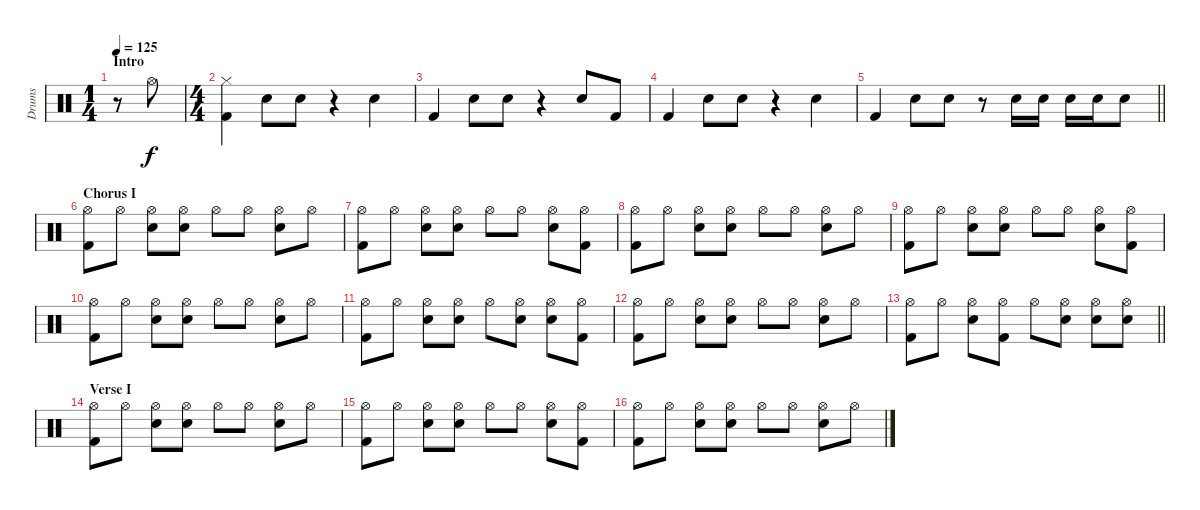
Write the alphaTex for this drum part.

\track ("Drums" "Drums") {instrument percussion}
\staff {score}
\articulation defaults
\ts (1 4)
\section ("" "Intro")
\tempo 125
\clef neutral
\ks c
r.8{dy f} "Hi-Hat (open)".8 |
\ts (4 4)
("Hi-Hat (closed)" "Kick (hit) 2").4 "Snare (hit) 2".8 "Snare (hit) 2".8 r.4 "Snare (hit) 2".4 |
"Kick (hit) 2".4 "Snare (hit) 2".8 "Snare (hit) 2".8 r.4 "Snare (hit) 2".8 "Kick (hit) 2".8 |
"Kick (hit) 2".4 "Snare (hit) 2".8 "Snare (hit) 2".8 r.4 "Snare (hit) 2".4 |
\barLineRight lightlight "Kick (hit) 2".4 "Snare (hit) 2".8 "Snare (hit) 2".8
r.8 "Snare (hit) 2".16 "Snare (hit) 2".16 "Snare (hit) 2".16 "Snare (hit) 2".16 "Snare (hit) 2".8 |
\section ("" "Chorus I")
("Hi-Hat (open)" "Kick (hit) 2").8 "Hi-Hat (open)".8 ("Hi-Hat (open)" "Snare (hit) 2").8 ("Hi-Hat (open)" "Snare (hit) 2").8 "Hi-Hat (open)".8 "Hi-Hat (open)".8 ("Hi-Hat (open)" "Snare (hit) 2").8 "Hi-Hat (open)".8 |
("Hi-Hat (open)" "Kick (hit) 2").8 "Hi-Hat (open)".8 ("Hi-Hat (open)" "Snare (hit) 2").8 ("Hi-Hat (open)" "Snare (hit) 2").8 "Hi-Hat (open)".8 "Hi-Hat (open)".8 ("Hi-Hat (open)" "Snare (hit) 2").8 ("Hi-Hat (open)" "Kick (hit) 2").8 |
("Hi-Hat (open)" "Kick (hit) 2").8 "Hi-Hat (open)".8 ("Hi-Hat (open)" "Snare (hit) 2").8 ("Hi-Hat (open)" "Snare (hit) 2").8 "Hi-Hat (open)".8 "Hi-Hat (open)".8 ("Hi-Hat (open)" "Snare (hit) 2").8 "Hi-Hat (open)".8 |
("Hi-Hat (open)" "Kick (hit) 2").8 "Hi-Hat (open)".8 ("Hi-Hat (open)" "Snare (hit) 2").8 ("Hi-Hat (open)" "Snare (hit) 2").8 "Hi-Hat (open)".8 "Hi-Hat (open)".8 ("Hi-Hat (open)" "Snare (hit) 2").8 ("Hi-Hat (open)" "Kick (hit) 2").8 |
("Hi-Hat (open)" "Kick (hit) 2").8 "Hi-Hat (open)".8 ("Hi-Hat (open)" "Snare (hit) 2").8 ("Hi-Hat (open)" "Snare (hit) 2").8 "Hi-Hat (open)".8 "Hi-Hat (open)".8 ("Hi-Hat (open)" "Snare (hit) 2").8 "Hi-Hat (open)".8 |
("Hi-Hat (open)" "Kick (hit) 2").8 "Hi-Hat (open)".8 ("Hi-Hat (open)" "Snare (hit) 2").8 ("Hi-Hat (open)" "Snare (hit) 2").8 "Hi-Hat (open)".8 ("Hi-Hat (open)" "Snare (hit) 2").8 ("Hi-Hat (open)" "Snare (hit) 2").8 ("Hi-Hat (open)" "Kick (hit) 2").8 |
("Hi-Hat (open)" "Kick (hit) 2").8 "Hi-Hat (open)".8 ("Hi-Hat (open)" "Snare (hit) 2").8 ("Hi-Hat (open)" "Snare (hit) 2").8 "Hi-Hat (open)".8 "Hi-Hat (open)".8 ("Hi-Hat (open)" "Snare (hit) 2").8 "Hi-Hat (open)".8 |
\barLineRight lightlight
("Hi-Hat (open)" "Kick (hit) 2").8 "Hi-Hat (open)".8 ("Hi-Hat (open)" "Snare (hit) 2").8 ("Hi-Hat (open)" "Kick (hit) 2").8 "Hi-Hat (open)".8 ("Hi-Hat (open)" "Snare (hit) 2").8 ("Hi-Hat (open)" "Snare (hit) 2").8 ("Hi-Hat (open)" "Snare (hit) 2").8 |
\section ("" "Verse I")
("Hi-Hat (open)" "Kick (hit) 2").8 "Hi-Hat (open)".8 ("Hi-Hat (open)" "Snare (hit) 2").8 ("Hi-Hat (open)" "Snare (hit) 2").8 "Hi-Hat (open)".8 "Hi-Hat (open)".8 ("Hi-Hat (open)" "Snare (hit) 2").8 "Hi-Hat (open)".8 |
("Hi-Hat (open)" "Kick (hit) 2").8 "Hi-Hat (open)".8 ("Hi-Hat (open)" "Snare (hit) 2").8 ("Hi-Hat (open)" "Snare (hit) 2").8 "Hi-Hat (open)".8 "Hi-Hat (open)".8 ("Hi-Hat (open)" "Snare (hit) 2").8 ("Hi-Hat (open)" "Kick (hit) 2").8 |
("Hi-Hat (open)" "Kick (hit) 2").8 "Hi-Hat (open)".8 ("Hi-Hat (open)" "Snare (hit) 2").8 ("Hi-Hat (open)" "Snare (hit) 2").8 "Hi-Hat (open)".8 "Hi-Hat (open)".8 ("Hi-Hat (open)" "Snare (hit) 2").8 "Hi-Hat (open)".8
